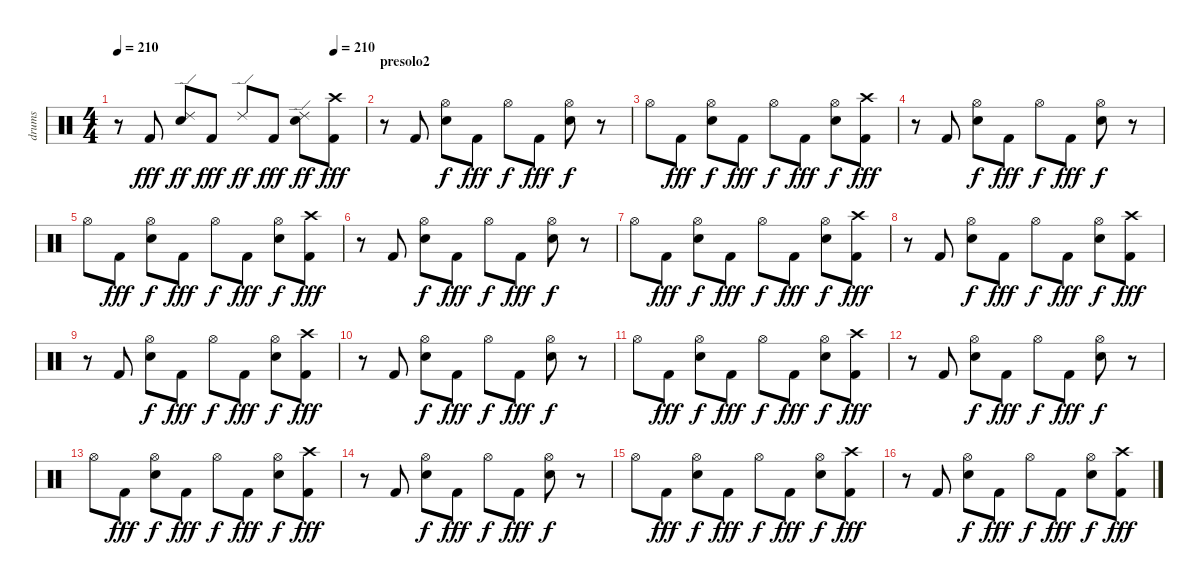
\track ("drums" "drums") {instrument percussion}
\staff {score}
\articulation defaults
\ts (4 4)
\tempo 210
\tempo (210 0.875)
\clef neutral
\ks c
r.8{dy fff} "Kick (hit) 2".8 ("Ride (edge) 2" "Snare (hit) 2").8{dy ff} "Kick (hit) 2".8{dy fff} "Ride (edge) 2".8{dy ff} "Kick (hit) 2".8{dy fff} ("Ride (edge) 2" "Snare (hit) 2").8{dy ff} ("Crash high (hit)" "Kick (hit) 2").8{dy fff} |
\section ("" "presolo2")
r.8 "Kick (hit) 2".8 ("Hi-Hat (open)" "Snare (hit) 2").8{dy f} "Kick (hit) 2".8{dy fff} "Hi-Hat (open)".8{dy f} "Kick (hit) 2".8{dy fff} ("Hi-Hat (open)" "Snare (hit) 2").8{dy f} r.8 |
"Hi-Hat (open)".8 "Kick (hit) 2".8{dy fff} ("Hi-Hat (open)" "Snare (hit) 2").8{dy f} "Kick (hit) 2".8{dy fff} "Hi-Hat (open)".8{dy f} "Kick (hit) 2".8{dy fff} ("Hi-Hat (open)" "Snare (hit) 2").8{dy f} ("Crash high (hit)" "Kick (hit) 2").8{dy fff} |
r.8 "Kick (hit) 2".8 ("Hi-Hat (open)" "Snare (hit) 2").8{dy f} "Kick (hit) 2".8{dy fff} "Hi-Hat (open)".8{dy f} "Kick (hit) 2".8{dy fff} ("Hi-Hat (open)" "Snare (hit) 2").8{dy f} r.8 |
"Hi-Hat (open)".8 "Kick (hit) 2".8{dy fff} ("Hi-Hat (open)" "Snare (hit) 2").8{dy f} "Kick (hit) 2".8{dy fff} "Hi-Hat (open)".8{dy f} "Kick (hit) 2".8{dy fff} ("Hi-Hat (open)" "Snare (hit) 2").8{dy f} ("Crash high (hit)" "Kick (hit) 2").8{dy fff} |
r.8 "Kick (hit) 2".8 ("Hi-Hat (open)" "Snare (hit) 2").8{dy f} "Kick (hit) 2".8{dy fff} "Hi-Hat (open)".8{dy f} "Kick (hit) 2".8{dy fff} ("Hi-Hat (open)" "Snare (hit) 2").8{dy f} r.8 |
"Hi-Hat (open)".8 "Kick (hit) 2".8{dy fff} ("Hi-Hat (open)" "Snare (hit) 2").8{dy f} "Kick (hit) 2".8{dy fff} "Hi-Hat (open)".8{dy f} "Kick (hit) 2".8{dy fff} ("Hi-Hat (open)" "Snare (hit) 2").8{dy f} ("Crash high (hit)" "Kick (hit) 2").8{dy fff} |
r.8 "Kick (hit) 2".8 ("Hi-Hat (open)" "Snare (hit) 2").8{dy f} "Kick (hit) 2".8{dy fff} "Hi-Hat (open)".8{dy f} "Kick (hit) 2".8{dy fff} ("Hi-Hat (open)" "Snare (hit) 2").8{dy f} ("Crash high (hit)" "Kick (hit) 2").8{dy fff} |
r.8 "Kick (hit) 2".8 ("Hi-Hat (open)" "Snare (hit) 2").8{dy f} "Kick (hit) 2".8{dy fff} "Hi-Hat (open)".8{dy f} "Kick (hit) 2".8{dy fff} ("Hi-Hat (open)" "Snare (hit) 2").8{dy f} ("Crash high (hit)" "Kick (hit) 2").8{dy fff} |
r.8 "Kick (hit) 2".8 ("Hi-Hat (open)" "Snare (hit) 2").8{dy f} "Kick (hit) 2".8{dy fff} "Hi-Hat (open)".8{dy f} "Kick (hit) 2".8{dy fff} ("Hi-Hat (open)" "Snare (hit) 2").8{dy f} r.8 |
"Hi-Hat (open)".8 "Kick (hit) 2".8{dy fff} ("Hi-Hat (open)" "Snare (hit) 2").8{dy f} "Kick (hit) 2".8{dy fff} "Hi-Hat (open)".8{dy f} "Kick (hit) 2".8{dy fff} ("Hi-Hat (open)" "Snare (hit) 2").8{dy f} ("Crash high (hit)" "Kick (hit) 2").8{dy fff} |
r.8 "Kick (hit) 2".8 ("Hi-Hat (open)" "Snare (hit) 2").8{dy f} "Kick (hit) 2".8{dy fff} "Hi-Hat (open)".8{dy f} "Kick (hit) 2".8{dy fff} ("Hi-Hat (open)" "Snare (hit) 2").8{dy f} r.8 |
"Hi-Hat (open)".8 "Kick (hit) 2".8{dy fff} ("Hi-Hat (open)" "Snare (hit) 2").8{dy f} "Kick (hit) 2".8{dy fff} "Hi-Hat (open)".8{dy f} "Kick (hit) 2".8{dy fff} ("Hi-Hat (open)" "Snare (hit) 2").8{dy f} ("Crash high (hit)" "Kick (hit) 2").8{dy fff} |
r.8 "Kick (hit) 2".8 ("Hi-Hat (open)" "Snare (hit) 2").8{dy f} "Kick (hit) 2".8{dy fff} "Hi-Hat (open)".8{dy f} "Kick (hit) 2".8{dy fff} ("Hi-Hat (open)" "Snare (hit) 2").8{dy f} r.8 |
"Hi-Hat (open)".8 "Kick (hit) 2".8{dy fff} ("Hi-Hat (open)" "Snare (hit) 2").8{dy f} "Kick (hit) 2".8{dy fff} "Hi-Hat (open)".8{dy f} "Kick (hit) 2".8{dy fff} ("Hi-Hat (open)" "Snare (hit) 2").8{dy f} ("Crash high (hit)" "Kick (hit) 2").8{dy fff} |
r.8 "Kick (hit) 2".8 ("Hi-Hat (open)" "Snare (hit) 2").8{dy f} "Kick (hit) 2".8{dy fff} "Hi-Hat (open)".8{dy f} "Kick (hit) 2".8{dy fff} ("Hi-Hat (open)" "Snare (hit) 2").8{dy f} ("Crash high (hit)" "Kick (hit) 2").8{dy fff}
